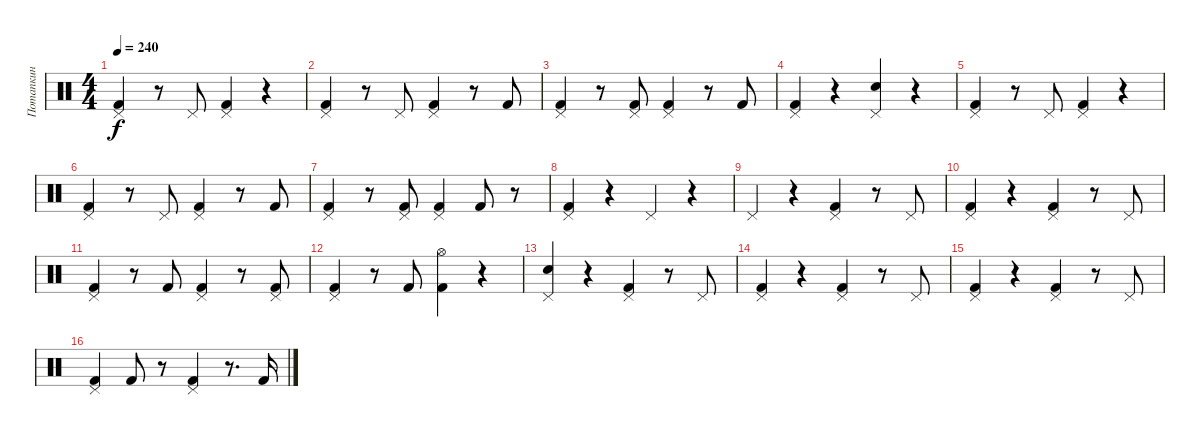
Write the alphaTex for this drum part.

\track ("Потапкин" "Потапкин") {instrument percussion}
\staff {score}
\articulation defaults
\ts (4 4)
\tempo 240
\clef neutral
\ks c
("Pedal Hi-Hat (hit)" "Kick (hit) 2").4{dy f} r.8 "Pedal Hi-Hat (hit)".8 ("Pedal Hi-Hat (hit)" "Kick (hit) 2").4 r.4 |
("Pedal Hi-Hat (hit)" "Kick (hit) 2").4 r.8 "Pedal Hi-Hat (hit)".8 ("Pedal Hi-Hat (hit)" "Kick (hit) 2").4 r.8 "Kick (hit) 2".8 |
("Pedal Hi-Hat (hit)" "Kick (hit) 2").4 r.8 ("Pedal Hi-Hat (hit)" "Kick (hit) 2").8 ("Pedal Hi-Hat (hit)" "Kick (hit) 2").4 r.8 "Kick (hit) 2".8 |
("Pedal Hi-Hat (hit)" "Kick (hit) 2").4 r.4 ("Pedal Hi-Hat (hit)" "Electric Snare (hit)").4 r.4 |
("Pedal Hi-Hat (hit)" "Kick (hit) 2").4 r.8 "Pedal Hi-Hat (hit)".8 ("Pedal Hi-Hat (hit)" "Kick (hit) 2").4 r.4 |
("Pedal Hi-Hat (hit)" "Kick (hit) 2").4 r.8 "Pedal Hi-Hat (hit)".8 ("Pedal Hi-Hat (hit)" "Kick (hit) 2").4 r.8 "Kick (hit) 2".8 |
("Pedal Hi-Hat (hit)" "Kick (hit) 2").4 r.8 ("Pedal Hi-Hat (hit)" "Kick (hit) 2").8 ("Pedal Hi-Hat (hit)" "Kick (hit) 2").4 "Kick (hit) 2".8 r.8 |
("Pedal Hi-Hat (hit)" "Kick (hit) 2").4 r.4 "Pedal Hi-Hat (hit)".4 r.4 |
"Pedal Hi-Hat (hit)".4 r.4 ("Pedal Hi-Hat (hit)" "Kick (hit) 2").4 r.8 "Pedal Hi-Hat (hit)".8 |
("Pedal Hi-Hat (hit)" "Kick (hit) 2").4 r.4 ("Pedal Hi-Hat (hit)" "Kick (hit) 2").4 r.8 "Pedal Hi-Hat (hit)".8 |
("Pedal Hi-Hat (hit)" "Kick (hit) 2").4 r.8 "Kick (hit) 2".8 ("Pedal Hi-Hat (hit)" "Kick (hit) 2").4 r.8 ("Pedal Hi-Hat (hit)" "Kick (hit) 2").8 |
("Pedal Hi-Hat (hit)" "Kick (hit) 2").4 r.8 "Kick (hit) 2".8 ("Hi-Hat (open)" "Kick (hit) 2").4 r.4 |
("Pedal Hi-Hat (hit)" "Electric Snare (hit)").4 r.4 ("Pedal Hi-Hat (hit)" "Kick (hit) 2").4 r.8 "Pedal Hi-Hat (hit)".8 |
("Pedal Hi-Hat (hit)" "Kick (hit) 2").4 r.4 ("Pedal Hi-Hat (hit)" "Kick (hit) 2").4 r.8 "Pedal Hi-Hat (hit)".8 |
("Pedal Hi-Hat (hit)" "Kick (hit) 2").4 r.4 ("Pedal Hi-Hat (hit)" "Kick (hit) 2").4 r.8 "Pedal Hi-Hat (hit)".8 |
("Pedal Hi-Hat (hit)" "Kick (hit) 2").4 "Kick (hit) 2".8 r.8 ("Pedal Hi-Hat (hit)" "Kick (hit) 2").4 r.8{d} "Kick (hit) 2".16
